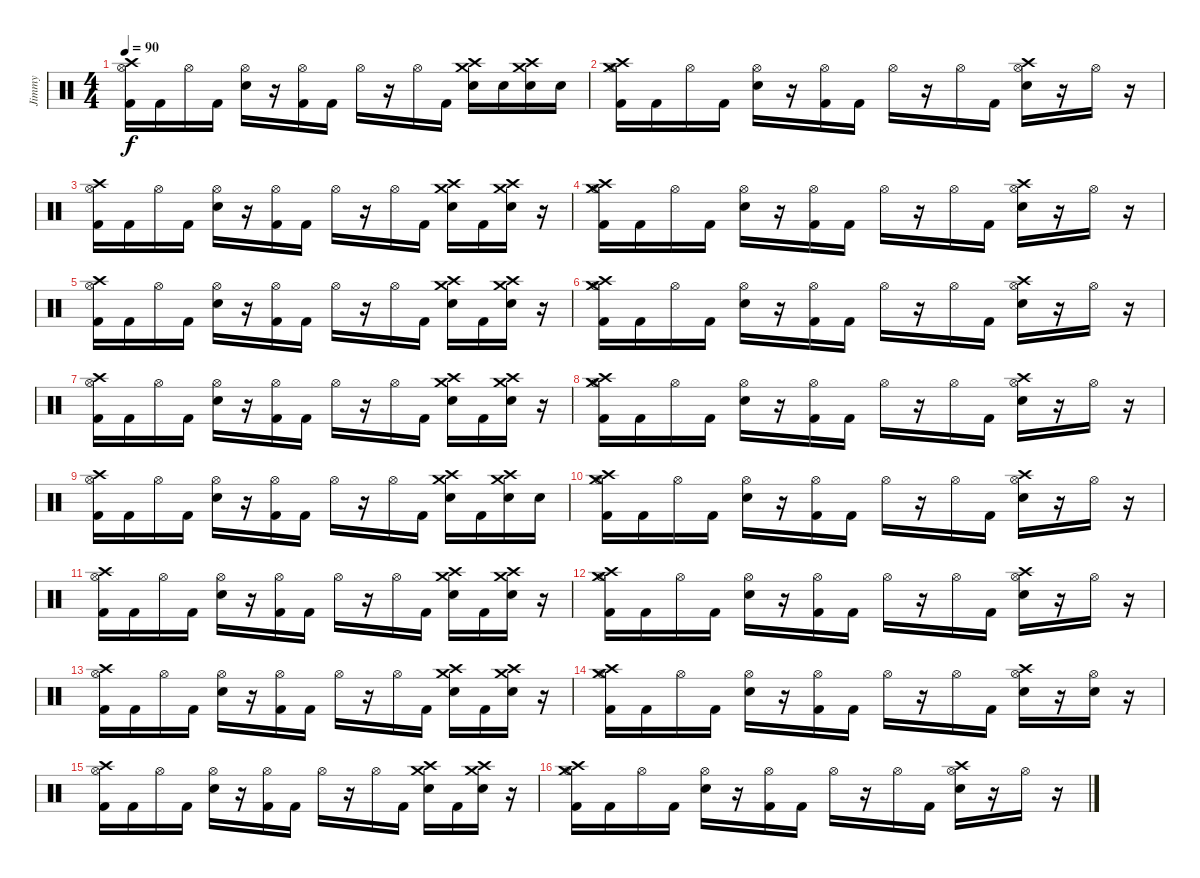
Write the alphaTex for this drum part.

\track ("Jimmy" "Jimmy") {instrument percussion}
\staff {score}
\articulation defaults
\ts (4 4)
\tempo 90
\clef neutral
\ks c
("Kick (hit) 2" "Hi-Hat (open)" "Crash high (hit)").16{dy f} "Kick (hit) 2".16 "Hi-Hat (open)".16 "Kick (hit) 2".16 ("Electric Snare (hit)" "Hi-Hat (open)").16 r.16 ("Kick (hit) 2" "Hi-Hat (open)").16 "Kick (hit) 2".16 "Hi-Hat (open)".16 r.16 "Hi-Hat (open)".16 "Kick (hit) 2".16 ("Electric Snare (hit)" "Crash high (hit)" "Crash medium (hit)").16 "Electric Snare (hit)".16 ("Electric Snare (hit)" "Crash high (hit)" "Crash medium (hit)").16 "Electric Snare (hit)".16 |
("Kick (hit) 2" "Hi-Hat (open)" "Crash high (hit)" "Crash medium (hit)").16 "Kick (hit) 2".16 "Hi-Hat (open)".16 "Kick (hit) 2".16 ("Electric Snare (hit)" "Hi-Hat (open)").16 r.16 ("Kick (hit) 2" "Hi-Hat (open)").16 "Kick (hit) 2".16 "Hi-Hat (open)".16 r.16 "Hi-Hat (open)".16 "Kick (hit) 2".16 ("Electric Snare (hit)" "Hi-Hat (open)" "Crash high (hit)").16 r.16 "Hi-Hat (open)".16 r.16 |
("Kick (hit) 2" "Hi-Hat (open)" "Crash high (hit)").16 "Kick (hit) 2".16 "Hi-Hat (open)".16 "Kick (hit) 2".16 ("Electric Snare (hit)" "Hi-Hat (open)").16 r.16 ("Kick (hit) 2" "Hi-Hat (open)").16 "Kick (hit) 2".16 "Hi-Hat (open)".16 r.16 "Hi-Hat (open)".16 "Kick (hit) 2".16 ("Electric Snare (hit)" "Crash high (hit)" "Crash medium (hit)").16 "Kick (hit) 2".16 ("Electric Snare (hit)" "Crash high (hit)" "Crash medium (hit)").16 r.16 |
("Kick (hit) 2" "Hi-Hat (open)" "Crash high (hit)" "Crash medium (hit)").16 "Kick (hit) 2".16 "Hi-Hat (open)".16 "Kick (hit) 2".16 ("Electric Snare (hit)" "Hi-Hat (open)").16 r.16 ("Kick (hit) 2" "Hi-Hat (open)").16 "Kick (hit) 2".16 "Hi-Hat (open)".16 r.16 "Hi-Hat (open)".16 "Kick (hit) 2".16 ("Electric Snare (hit)" "Hi-Hat (open)" "Crash high (hit)").16 r.16 "Hi-Hat (open)".16 r.16 |
("Kick (hit) 2" "Hi-Hat (open)" "Crash high (hit)").16 "Kick (hit) 2".16 "Hi-Hat (open)".16 "Kick (hit) 2".16 ("Electric Snare (hit)" "Hi-Hat (open)").16 r.16 ("Kick (hit) 2" "Hi-Hat (open)").16 "Kick (hit) 2".16 "Hi-Hat (open)".16 r.16 "Hi-Hat (open)".16 "Kick (hit) 2".16 ("Electric Snare (hit)" "Crash high (hit)" "Crash medium (hit)").16 "Kick (hit) 2".16 ("Electric Snare (hit)" "Crash high (hit)" "Crash medium (hit)").16 r.16 |
("Kick (hit) 2" "Hi-Hat (open)" "Crash high (hit)" "Crash medium (hit)").16 "Kick (hit) 2".16 "Hi-Hat (open)".16 "Kick (hit) 2".16 ("Electric Snare (hit)" "Hi-Hat (open)").16 r.16 ("Kick (hit) 2" "Hi-Hat (open)").16 "Kick (hit) 2".16 "Hi-Hat (open)".16 r.16 "Hi-Hat (open)".16 "Kick (hit) 2".16 ("Electric Snare (hit)" "Hi-Hat (open)" "Crash high (hit)").16 r.16 "Hi-Hat (open)".16 r.16 |
("Kick (hit) 2" "Hi-Hat (open)" "Crash high (hit)").16 "Kick (hit) 2".16 "Hi-Hat (open)".16 "Kick (hit) 2".16 ("Electric Snare (hit)" "Hi-Hat (open)").16 r.16 ("Kick (hit) 2" "Hi-Hat (open)").16 "Kick (hit) 2".16 "Hi-Hat (open)".16 r.16 "Hi-Hat (open)".16 "Kick (hit) 2".16 ("Electric Snare (hit)" "Crash high (hit)" "Crash medium (hit)").16 "Kick (hit) 2".16 ("Electric Snare (hit)" "Crash high (hit)" "Crash medium (hit)").16 r.16 |
("Kick (hit) 2" "Hi-Hat (open)" "Crash high (hit)" "Crash medium (hit)").16 "Kick (hit) 2".16 "Hi-Hat (open)".16 "Kick (hit) 2".16 ("Electric Snare (hit)" "Hi-Hat (open)").16 r.16 ("Kick (hit) 2" "Hi-Hat (open)").16 "Kick (hit) 2".16 "Hi-Hat (open)".16 r.16 "Hi-Hat (open)".16 "Kick (hit) 2".16 ("Electric Snare (hit)" "Hi-Hat (open)" "Crash high (hit)").16 r.16 "Hi-Hat (open)".16 r.16 |
("Kick (hit) 2" "Hi-Hat (open)" "Crash high (hit)").16 "Kick (hit) 2".16 "Hi-Hat (open)".16 "Kick (hit) 2".16 ("Electric Snare (hit)" "Hi-Hat (open)").16 r.16 ("Kick (hit) 2" "Hi-Hat (open)").16 "Kick (hit) 2".16 "Hi-Hat (open)".16 r.16 "Hi-Hat (open)".16 "Kick (hit) 2".16 ("Electric Snare (hit)" "Crash high (hit)" "Crash medium (hit)").16 "Kick (hit) 2".16 ("Electric Snare (hit)" "Crash high (hit)" "Crash medium (hit)").16 "Electric Snare (hit)".16 |
("Kick (hit) 2" "Hi-Hat (open)" "Crash high (hit)" "Crash medium (hit)").16 "Kick (hit) 2".16 "Hi-Hat (open)".16 "Kick (hit) 2".16 ("Electric Snare (hit)" "Hi-Hat (open)").16 r.16 ("Kick (hit) 2" "Hi-Hat (open)").16 "Kick (hit) 2".16 "Hi-Hat (open)".16 r.16 "Hi-Hat (open)".16 "Kick (hit) 2".16 ("Electric Snare (hit)" "Hi-Hat (open)" "Crash high (hit)").16 r.16 "Hi-Hat (open)".16 r.16 |
("Kick (hit) 2" "Hi-Hat (open)" "Crash high (hit)").16 "Kick (hit) 2".16 "Hi-Hat (open)".16 "Kick (hit) 2".16 ("Electric Snare (hit)" "Hi-Hat (open)").16 r.16 ("Kick (hit) 2" "Hi-Hat (open)").16 "Kick (hit) 2".16 "Hi-Hat (open)".16 r.16 "Hi-Hat (open)".16 "Kick (hit) 2".16 ("Electric Snare (hit)" "Crash high (hit)" "Crash medium (hit)").16 "Kick (hit) 2".16 ("Electric Snare (hit)" "Crash high (hit)" "Crash medium (hit)").16 r.16 |
("Kick (hit) 2" "Hi-Hat (open)" "Crash high (hit)" "Crash medium (hit)").16 "Kick (hit) 2".16 "Hi-Hat (open)".16 "Kick (hit) 2".16 ("Electric Snare (hit)" "Hi-Hat (open)").16 r.16 ("Kick (hit) 2" "Hi-Hat (open)").16 "Kick (hit) 2".16 "Hi-Hat (open)".16 r.16 "Hi-Hat (open)".16 "Kick (hit) 2".16 ("Electric Snare (hit)" "Hi-Hat (open)" "Crash high (hit)").16 r.16 "Hi-Hat (open)".16 r.16 |
("Kick (hit) 2" "Hi-Hat (open)" "Crash high (hit)").16 "Kick (hit) 2".16 "Hi-Hat (open)".16 "Kick (hit) 2".16 ("Electric Snare (hit)" "Hi-Hat (open)").16 r.16 ("Kick (hit) 2" "Hi-Hat (open)").16 "Kick (hit) 2".16 "Hi-Hat (open)".16 r.16 "Hi-Hat (open)".16 "Kick (hit) 2".16 ("Electric Snare (hit)" "Crash high (hit)" "Crash medium (hit)").16 "Kick (hit) 2".16 ("Electric Snare (hit)" "Crash high (hit)" "Crash medium (hit)").16 r.16 |
("Kick (hit) 2" "Hi-Hat (open)" "Crash high (hit)" "Crash medium (hit)").16 "Kick (hit) 2".16 "Hi-Hat (open)".16 "Kick (hit) 2".16 ("Electric Snare (hit)" "Hi-Hat (open)").16 r.16 ("Kick (hit) 2" "Hi-Hat (open)").16 "Kick (hit) 2".16 "Hi-Hat (open)".16 r.16 "Hi-Hat (open)".16 "Kick (hit) 2".16 ("Electric Snare (hit)" "Hi-Hat (open)" "Crash high (hit)").16 r.16 ("Hi-Hat (open)" "Snare (hit)").16 r.16 |
("Kick (hit) 2" "Hi-Hat (open)" "Crash high (hit)").16 "Kick (hit) 2".16 "Hi-Hat (open)".16 "Kick (hit) 2".16 ("Electric Snare (hit)" "Hi-Hat (open)").16 r.16 ("Kick (hit) 2" "Hi-Hat (open)").16 "Kick (hit) 2".16 "Hi-Hat (open)".16 r.16 "Hi-Hat (open)".16 "Kick (hit) 2".16 ("Electric Snare (hit)" "Crash high (hit)" "Crash medium (hit)").16 "Kick (hit) 2".16 ("Electric Snare (hit)" "Crash high (hit)" "Crash medium (hit)").16 r.16 |
("Kick (hit) 2" "Hi-Hat (open)" "Crash high (hit)" "Crash medium (hit)").16 "Kick (hit) 2".16 "Hi-Hat (open)".16 "Kick (hit) 2".16 ("Electric Snare (hit)" "Hi-Hat (open)").16 r.16 ("Kick (hit) 2" "Hi-Hat (open)").16 "Kick (hit) 2".16 "Hi-Hat (open)".16 r.16 "Hi-Hat (open)".16 "Kick (hit) 2".16 ("Electric Snare (hit)" "Hi-Hat (open)" "Crash high (hit)").16 r.16 "Hi-Hat (open)".16 r.16
